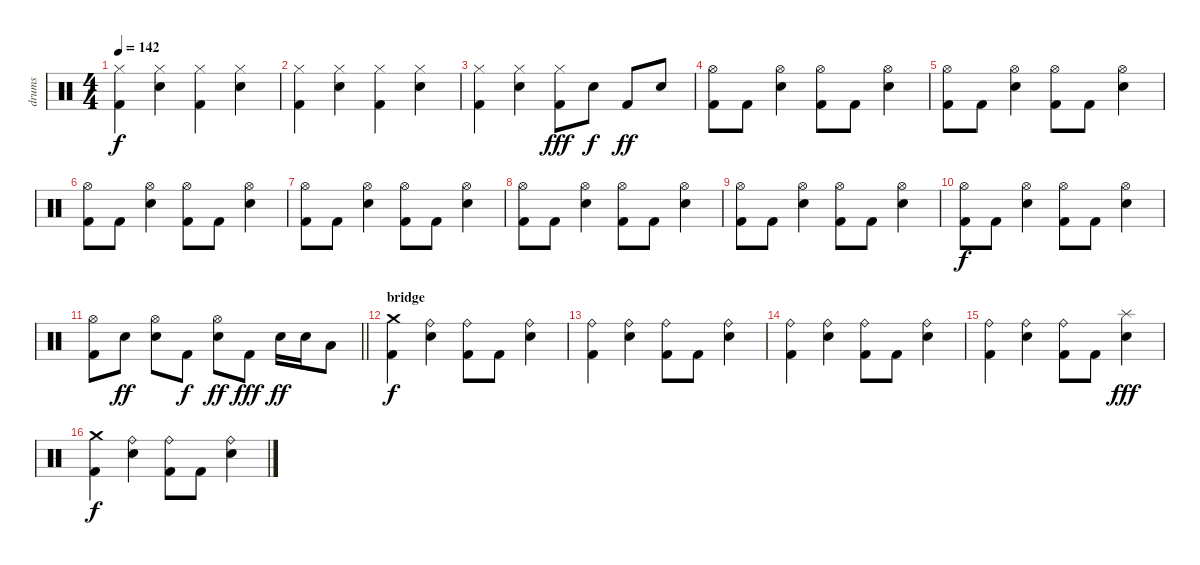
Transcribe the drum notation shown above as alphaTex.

\track ("drums" "drums") {instrument percussion}
\staff {score}
\articulation defaults
\ts (4 4)
\tempo 142
\clef neutral
\ks c
("Hi-Hat (closed)" "Kick (hit) 2").4{dy f} ("Hi-Hat (closed)" "Electric Snare (hit)").4 ("Hi-Hat (closed)" "Kick (hit) 2").4 ("Hi-Hat (closed)" "Electric Snare (hit)").4 |
("Hi-Hat (closed)" "Kick (hit) 2").4 ("Hi-Hat (closed)" "Electric Snare (hit)").4 ("Hi-Hat (closed)" "Kick (hit) 2").4 ("Hi-Hat (closed)" "Electric Snare (hit)").4 |
("Hi-Hat (closed)" "Kick (hit) 2").4 ("Hi-Hat (closed)" "Electric Snare (hit)").4{volume 13} ("Hi-Hat (closed)" "Kick (hit) 2").8{dy fff} "Electric Snare (hit)".8{dy f} "Kick (hit) 2".8{dy ff} "Electric Snare (hit)".8 |
("Hi-Hat (open)" "Kick (hit) 2").8{volume 10} "Kick (hit) 2".8 ("Hi-Hat (open)" "Electric Snare (hit)").4 ("Hi-Hat (open)" "Kick (hit) 2").8 "Kick (hit) 2".8 ("Hi-Hat (open)" "Electric Snare (hit)").4 |
("Hi-Hat (open)" "Kick (hit) 2").8 "Kick (hit) 2".8 ("Hi-Hat (open)" "Electric Snare (hit)").4 ("Hi-Hat (open)" "Kick (hit) 2").8 "Kick (hit) 2".8 ("Hi-Hat (open)" "Electric Snare (hit)").4 |
("Hi-Hat (open)" "Kick (hit) 2").8 "Kick (hit) 2".8 ("Hi-Hat (open)" "Electric Snare (hit)").4 ("Hi-Hat (open)" "Kick (hit) 2").8 "Kick (hit) 2".8 ("Hi-Hat (open)" "Electric Snare (hit)").4 |
("Hi-Hat (open)" "Kick (hit) 2").8 "Kick (hit) 2".8 ("Hi-Hat (open)" "Electric Snare (hit)").4 ("Hi-Hat (open)" "Kick (hit) 2").8 "Kick (hit) 2".8 ("Hi-Hat (open)" "Electric Snare (hit)").4 |
("Hi-Hat (open)" "Kick (hit) 2").8 "Kick (hit) 2".8 ("Hi-Hat (open)" "Electric Snare (hit)").4 ("Hi-Hat (open)" "Kick (hit) 2").8 "Kick (hit) 2".8 ("Hi-Hat (open)" "Electric Snare (hit)").4 |
("Hi-Hat (open)" "Kick (hit) 2").8 "Kick (hit) 2".8 ("Hi-Hat (open)" "Electric Snare (hit)").4 ("Hi-Hat (open)" "Kick (hit) 2").8 "Kick (hit) 2".8 ("Hi-Hat (open)" "Electric Snare (hit)").4 |
("Hi-Hat (open)" "Kick (hit) 2").8{dy f} "Kick (hit) 2".8 ("Hi-Hat (open)" "Electric Snare (hit)").4 ("Hi-Hat (open)" "Kick (hit) 2").8 "Kick (hit) 2".8 ("Hi-Hat (open)" "Electric Snare (hit)").4 |
\barLineRight lightlight
("Hi-Hat (open)" "Kick (hit) 2").8 "Electric Snare (hit)".8{dy ff} ("Hi-Hat (open)" "Electric Snare (hit)").8 "Kick (hit) 2".8{dy f} ("Hi-Hat (open)" "Electric Snare (hit)").8{dy ff} "Kick (hit) 2".8{dy fff} "Electric Snare (hit)".16{dy ff} "Electric Snare (hit)".16 "Low Floor Tom (hit)".8 |
\section ("" "bridge")
("Crash medium (hit)" "Kick (hit) 2").4{dy f volume 10} ("Ride (bell)" "Electric Snare (hit)").4 ("Ride (bell)" "Kick (hit) 2").8 "Kick (hit) 2".8 ("Ride (bell)" "Electric Snare (hit)").4 |
("Ride (bell)" "Kick (hit) 2").4 ("Ride (bell)" "Electric Snare (hit)").4 ("Ride (bell)" "Kick (hit) 2").8 "Kick (hit) 2".8 ("Ride (bell)" "Electric Snare (hit)").4 |
("Ride (bell)" "Kick (hit) 2").4 ("Ride (bell)" "Electric Snare (hit)").4 ("Ride (bell)" "Kick (hit) 2").8 "Kick (hit) 2".8 ("Ride (bell)" "Electric Snare (hit)").4 |
("Ride (bell)" "Kick (hit) 2").4 ("Ride (bell)" "Electric Snare (hit)").4 ("Ride (bell)" "Kick (hit) 2").8 "Kick (hit) 2".8 ("Splash (hit)" "Electric Snare (hit)").4{dy fff} |
("Crash medium (hit)" "Kick (hit) 2").4{dy f} ("Ride (bell)" "Electric Snare (hit)").4 ("Ride (bell)" "Kick (hit) 2").8 "Kick (hit) 2".8 ("Ride (bell)" "Electric Snare (hit)").4
